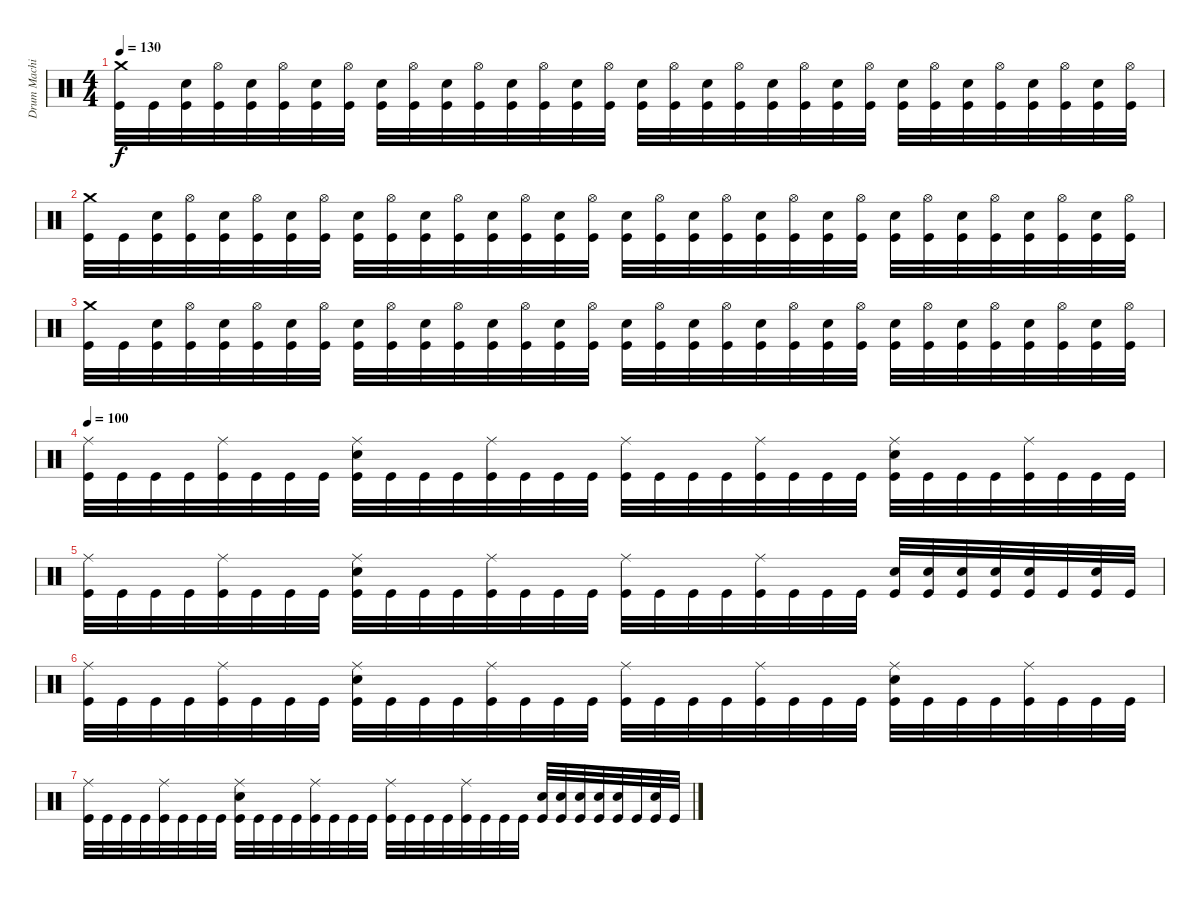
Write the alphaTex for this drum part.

\track ("Drum Machine" "Drum Machi") {instrument percussion}
\staff {score}
\articulation defaults
\ts (4 4)
\tempo 130
\clef neutral
\ks c
("Crash medium (hit)" "Kick (hit)").32{dy f} "Kick (hit)".32 ("Electric Snare (hit)" "Kick (hit)").32 ("Hi-Hat (open)" "Kick (hit)").32 ("Electric Snare (hit)" "Kick (hit)").32 ("Hi-Hat (open)" "Kick (hit)").32 ("Electric Snare (hit)" "Kick (hit)").32 ("Hi-Hat (open)" "Kick (hit)").32 ("Electric Snare (hit)" "Kick (hit)").32 ("Hi-Hat (open)" "Kick (hit)").32 ("Electric Snare (hit)" "Kick (hit)").32 ("Hi-Hat (open)" "Kick (hit)").32 ("Electric Snare (hit)" "Kick (hit)").32 ("Hi-Hat (open)" "Kick (hit)").32 ("Electric Snare (hit)" "Kick (hit)").32 ("Hi-Hat (open)" "Kick (hit)").32 ("Electric Snare (hit)" "Kick (hit)").32 ("Hi-Hat (open)" "Kick (hit)").32 ("Electric Snare (hit)" "Kick (hit)").32 ("Hi-Hat (open)" "Kick (hit)").32 ("Electric Snare (hit)" "Kick (hit)").32 ("Hi-Hat (open)" "Kick (hit)").32 ("Electric Snare (hit)" "Kick (hit)").32 ("Hi-Hat (open)" "Kick (hit)").32 ("Electric Snare (hit)" "Kick (hit)").32 ("Hi-Hat (open)" "Kick (hit)").32 ("Electric Snare (hit)" "Kick (hit)").32 ("Hi-Hat (open)" "Kick (hit)").32 ("Electric Snare (hit)" "Kick (hit)").32 ("Hi-Hat (open)" "Kick (hit)").32 ("Electric Snare (hit)" "Kick (hit)").32 ("Hi-Hat (open)" "Kick (hit)").32 |
("Crash medium (hit)" "Kick (hit)").32 "Kick (hit)".32 ("Electric Snare (hit)" "Kick (hit)").32 ("Hi-Hat (open)" "Kick (hit)").32 ("Electric Snare (hit)" "Kick (hit)").32 ("Hi-Hat (open)" "Kick (hit)").32 ("Electric Snare (hit)" "Kick (hit)").32 ("Hi-Hat (open)" "Kick (hit)").32 ("Electric Snare (hit)" "Kick (hit)").32 ("Hi-Hat (open)" "Kick (hit)").32 ("Electric Snare (hit)" "Kick (hit)").32 ("Hi-Hat (open)" "Kick (hit)").32 ("Electric Snare (hit)" "Kick (hit)").32 ("Hi-Hat (open)" "Kick (hit)").32 ("Electric Snare (hit)" "Kick (hit)").32 ("Hi-Hat (open)" "Kick (hit)").32 ("Electric Snare (hit)" "Kick (hit)").32 ("Hi-Hat (open)" "Kick (hit)").32 ("Electric Snare (hit)" "Kick (hit)").32 ("Hi-Hat (open)" "Kick (hit)").32 ("Electric Snare (hit)" "Kick (hit)").32 ("Hi-Hat (open)" "Kick (hit)").32 ("Electric Snare (hit)" "Kick (hit)").32 ("Hi-Hat (open)" "Kick (hit)").32 ("Electric Snare (hit)" "Kick (hit)").32 ("Hi-Hat (open)" "Kick (hit)").32 ("Electric Snare (hit)" "Kick (hit)").32 ("Hi-Hat (open)" "Kick (hit)").32 ("Electric Snare (hit)" "Kick (hit)").32 ("Hi-Hat (open)" "Kick (hit)").32 ("Electric Snare (hit)" "Kick (hit)").32 ("Hi-Hat (open)" "Kick (hit)").32 |
("Crash medium (hit)" "Kick (hit)").32 "Kick (hit)".32 ("Electric Snare (hit)" "Kick (hit)").32 ("Hi-Hat (open)" "Kick (hit)").32 ("Electric Snare (hit)" "Kick (hit)").32 ("Hi-Hat (open)" "Kick (hit)").32 ("Electric Snare (hit)" "Kick (hit)").32 ("Hi-Hat (open)" "Kick (hit)").32 ("Electric Snare (hit)" "Kick (hit)").32 ("Hi-Hat (open)" "Kick (hit)").32 ("Electric Snare (hit)" "Kick (hit)").32 ("Hi-Hat (open)" "Kick (hit)").32 ("Electric Snare (hit)" "Kick (hit)").32 ("Hi-Hat (open)" "Kick (hit)").32 ("Electric Snare (hit)" "Kick (hit)").32 ("Hi-Hat (open)" "Kick (hit)").32 ("Electric Snare (hit)" "Kick (hit)").32 ("Hi-Hat (open)" "Kick (hit)").32 ("Electric Snare (hit)" "Kick (hit)").32 ("Hi-Hat (open)" "Kick (hit)").32 ("Electric Snare (hit)" "Kick (hit)").32 ("Hi-Hat (open)" "Kick (hit)").32 ("Electric Snare (hit)" "Kick (hit)").32 ("Hi-Hat (open)" "Kick (hit)").32 ("Electric Snare (hit)" "Kick (hit)").32 ("Hi-Hat (open)" "Kick (hit)").32 ("Electric Snare (hit)" "Kick (hit)").32 ("Hi-Hat (open)" "Kick (hit)").32 ("Electric Snare (hit)" "Kick (hit)").32 ("Hi-Hat (open)" "Kick (hit)").32 ("Electric Snare (hit)" "Kick (hit)").32 ("Hi-Hat (open)" "Kick (hit)").32 |
\tempo 100
("Ride (middle)" "Kick (hit)").32 "Kick (hit)".32 "Kick (hit)".32 "Kick (hit)".32 ("Ride (middle)" "Kick (hit)").32 "Kick (hit)".32 "Kick (hit)".32 "Kick (hit)".32 ("Ride (middle)" "Electric Snare (hit)" "Kick (hit)").32 "Kick (hit)".32 "Kick (hit)".32 "Kick (hit)".32 ("Ride (middle)" "Kick (hit)").32 "Kick (hit)".32 "Kick (hit)".32 "Kick (hit)".32 ("Ride (middle)" "Kick (hit)").32 "Kick (hit)".32 "Kick (hit)".32 "Kick (hit)".32 ("Ride (middle)" "Kick (hit)").32 "Kick (hit)".32 "Kick (hit)".32 "Kick (hit)".32 ("Ride (middle)" "Electric Snare (hit)" "Kick (hit)").32 "Kick (hit)".32 "Kick (hit)".32 "Kick (hit)".32 ("Ride (middle)" "Kick (hit)").32 "Kick (hit)".32 "Kick (hit)".32 "Kick (hit)".32 |
("Ride (middle)" "Kick (hit)").32 "Kick (hit)".32 "Kick (hit)".32 "Kick (hit)".32 ("Ride (middle)" "Kick (hit)").32 "Kick (hit)".32 "Kick (hit)".32 "Kick (hit)".32 ("Ride (middle)" "Electric Snare (hit)" "Kick (hit)").32 "Kick (hit)".32 "Kick (hit)".32 "Kick (hit)".32 ("Ride (middle)" "Kick (hit)").32 "Kick (hit)".32 "Kick (hit)".32 "Kick (hit)".32 ("Ride (middle)" "Kick (hit)").32 "Kick (hit)".32 "Kick (hit)".32 "Kick (hit)".32 ("Ride (middle)" "Kick (hit)").32 "Kick (hit)".32 "Kick (hit)".32 "Kick (hit)".32 ("Electric Snare (hit)" "Kick (hit)").32 ("Electric Snare (hit)" "Kick (hit)").32 ("Electric Snare (hit)" "Kick (hit)").32 ("Electric Snare (hit)" "Kick (hit)").32 ("Electric Snare (hit)" "Kick (hit)").32 "Kick (hit)".32 ("Electric Snare (hit)" "Kick (hit)").32 "Kick (hit)".32 |
("Ride (middle)" "Kick (hit)").32 "Kick (hit)".32 "Kick (hit)".32 "Kick (hit)".32 ("Ride (middle)" "Kick (hit)").32 "Kick (hit)".32 "Kick (hit)".32 "Kick (hit)".32 ("Ride (middle)" "Electric Snare (hit)" "Kick (hit)").32 "Kick (hit)".32 "Kick (hit)".32 "Kick (hit)".32 ("Ride (middle)" "Kick (hit)").32 "Kick (hit)".32 "Kick (hit)".32 "Kick (hit)".32 ("Ride (middle)" "Kick (hit)").32 "Kick (hit)".32 "Kick (hit)".32 "Kick (hit)".32 ("Ride (middle)" "Kick (hit)").32 "Kick (hit)".32 "Kick (hit)".32 "Kick (hit)".32 ("Ride (middle)" "Electric Snare (hit)" "Kick (hit)").32 "Kick (hit)".32 "Kick (hit)".32 "Kick (hit)".32 ("Ride (middle)" "Kick (hit)").32 "Kick (hit)".32 "Kick (hit)".32 "Kick (hit)".32 |
("Ride (middle)" "Kick (hit)").32 "Kick (hit)".32 "Kick (hit)".32 "Kick (hit)".32 ("Ride (middle)" "Kick (hit)").32 "Kick (hit)".32 "Kick (hit)".32 "Kick (hit)".32 ("Ride (middle)" "Electric Snare (hit)" "Kick (hit)").32 "Kick (hit)".32 "Kick (hit)".32 "Kick (hit)".32 ("Ride (middle)" "Kick (hit)").32 "Kick (hit)".32 "Kick (hit)".32 "Kick (hit)".32 ("Ride (middle)" "Kick (hit)").32 "Kick (hit)".32 "Kick (hit)".32 "Kick (hit)".32 ("Ride (middle)" "Kick (hit)").32 "Kick (hit)".32 "Kick (hit)".32 "Kick (hit)".32 ("Electric Snare (hit)" "Kick (hit)").32 ("Electric Snare (hit)" "Kick (hit)").32 ("Electric Snare (hit)" "Kick (hit)").32 ("Electric Snare (hit)" "Kick (hit)").32 ("Electric Snare (hit)" "Kick (hit)").32 "Kick (hit)".32 ("Electric Snare (hit)" "Kick (hit)").32 "Kick (hit)".32
